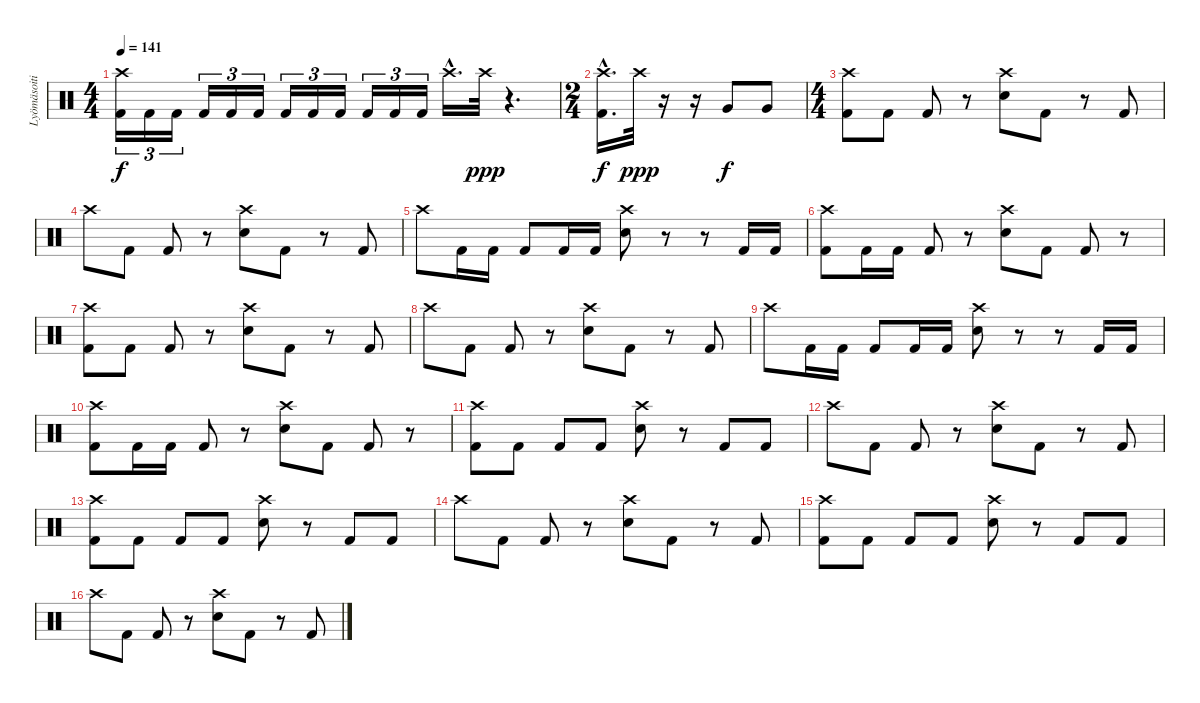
\track ("Lyömäsoitin" "Lyömäsoiti") {instrument percussion}
\staff {score}
\articulation defaults
\ts (4 4)
\tempo 141
\clef neutral
\ks c
("Crash high (hit)" "Kick (hit) 2").16{tu (3 2) dy f} "Kick (hit) 2".16{tu (3 2)} "Kick (hit) 2".16{tu (3 2)} "Kick (hit) 2".16{tu (3 2)} "Kick (hit) 2".16{tu (3 2)} "Kick (hit) 2".16{tu (3 2)} "Kick (hit) 2".16{tu (3 2)} "Kick (hit) 2".16{tu (3 2)} "Kick (hit) 2".16{tu (3 2)} "Kick (hit) 2".16{tu (3 2)} "Kick (hit) 2".16{tu (3 2)} "Kick (hit) 2".16{tu (3 2)} "Crash high (hit)"{hac}.16{d} "Crash high (hit)".32{dy ppp} r.4{d} |
\ts (2 4)
("Crash high (hit)"{hac} "Kick (hit) 2"{hac}).16{d dy f} "Crash high (hit)".32{dy ppp} r.16 r.16 "Very Low Tom (hit)".8{dy f} "Very Low Tom (hit)".8 |
\ts (4 4)
("Crash high (hit)" "Kick (hit) 2").8 "Kick (hit) 2".8 "Kick (hit) 2".8 r.8 ("Crash high (hit)" "Electric Snare (hit)").8 "Kick (hit) 2".8 r.8 "Kick (hit) 2".8 |
"Crash high (hit)".8 "Kick (hit) 2".8 "Kick (hit) 2".8 r.8 ("Crash high (hit)" "Electric Snare (hit)").8 "Kick (hit) 2".8 r.8 "Kick (hit) 2".8 |
"Crash high (hit)".8 "Kick (hit) 2".16 "Kick (hit) 2".16 "Kick (hit) 2".8 "Kick (hit) 2".16 "Kick (hit) 2".16 ("Crash high (hit)" "Electric Snare (hit)").8 r.8 r.8 "Kick (hit) 2".16 "Kick (hit) 2".16 |
("Crash high (hit)" "Kick (hit) 2").8 "Kick (hit) 2".16 "Kick (hit) 2".16 "Kick (hit) 2".8 r.8 ("Crash high (hit)" "Electric Snare (hit)").8 "Kick (hit) 2".8 "Kick (hit) 2".8 r.8 |
("Crash high (hit)" "Kick (hit) 2").8 "Kick (hit) 2".8 "Kick (hit) 2".8 r.8 ("Crash high (hit)" "Electric Snare (hit)").8 "Kick (hit) 2".8 r.8 "Kick (hit) 2".8 |
"Crash high (hit)".8 "Kick (hit) 2".8 "Kick (hit) 2".8 r.8 ("Crash high (hit)" "Electric Snare (hit)").8 "Kick (hit) 2".8 r.8 "Kick (hit) 2".8 |
"Crash high (hit)".8 "Kick (hit) 2".16 "Kick (hit) 2".16 "Kick (hit) 2".8 "Kick (hit) 2".16 "Kick (hit) 2".16 ("Crash high (hit)" "Electric Snare (hit)").8 r.8 r.8 "Kick (hit) 2".16 "Kick (hit) 2".16 |
("Crash high (hit)" "Kick (hit) 2").8 "Kick (hit) 2".16 "Kick (hit) 2".16 "Kick (hit) 2".8 r.8 ("Crash high (hit)" "Electric Snare (hit)").8 "Kick (hit) 2".8 "Kick (hit) 2".8 r.8 |
("Crash high (hit)" "Kick (hit) 2").8 "Kick (hit) 2".8 "Kick (hit) 2".8 "Kick (hit) 2".8 ("Crash high (hit)" "Electric Snare (hit)").8 r.8 "Kick (hit) 2".8 "Kick (hit) 2".8 |
"Crash high (hit)".8 "Kick (hit) 2".8 "Kick (hit) 2".8 r.8 ("Crash high (hit)" "Electric Snare (hit)").8 "Kick (hit) 2".8 r.8 "Kick (hit) 2".8 |
("Crash high (hit)" "Kick (hit) 2").8 "Kick (hit) 2".8 "Kick (hit) 2".8 "Kick (hit) 2".8 ("Crash high (hit)" "Electric Snare (hit)").8 r.8 "Kick (hit) 2".8 "Kick (hit) 2".8 |
"Crash high (hit)".8 "Kick (hit) 2".8 "Kick (hit) 2".8 r.8 ("Crash high (hit)" "Electric Snare (hit)").8 "Kick (hit) 2".8 r.8 "Kick (hit) 2".8 |
("Crash high (hit)" "Kick (hit) 2").8 "Kick (hit) 2".8 "Kick (hit) 2".8 "Kick (hit) 2".8 ("Crash high (hit)" "Electric Snare (hit)").8 r.8 "Kick (hit) 2".8 "Kick (hit) 2".8 |
"Crash high (hit)".8 "Kick (hit) 2".8 "Kick (hit) 2".8 r.8 ("Crash high (hit)" "Electric Snare (hit)").8 "Kick (hit) 2".8 r.8 "Kick (hit) 2".8
